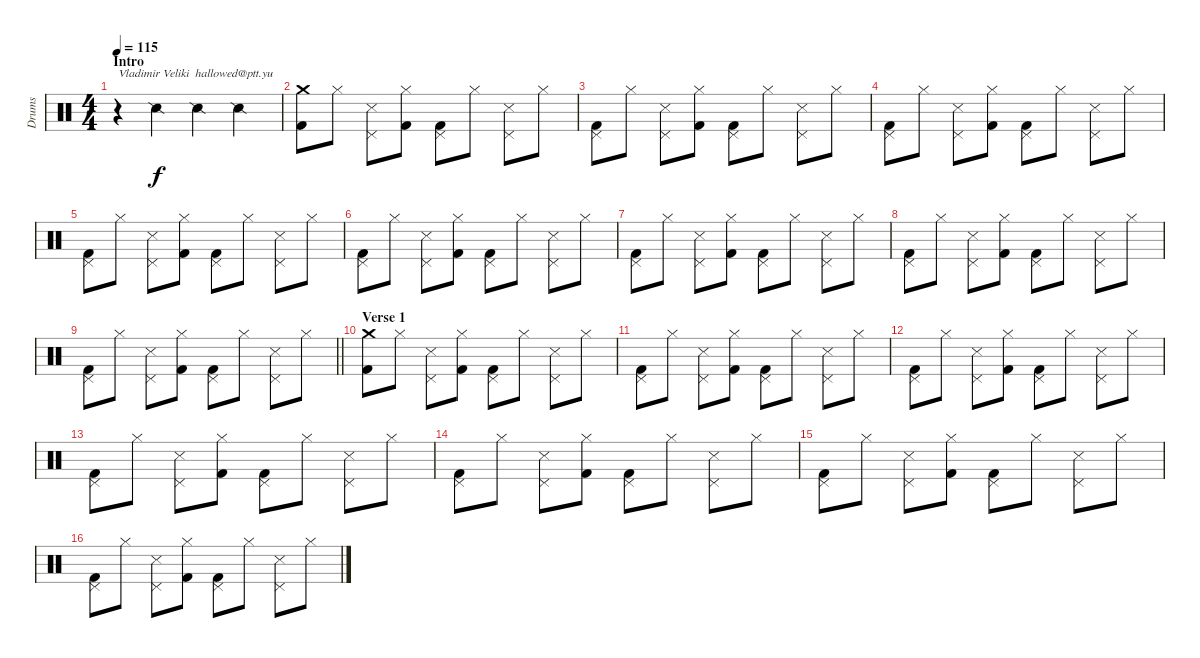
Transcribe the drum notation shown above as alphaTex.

\track ("Drums" "Drums") {instrument percussion}
\staff {score}
\articulation defaults
\ts (4 4)
\section ("" "Intro")
\tempo 115
\clef neutral
\ks c
r.4{txt "Vladimir Veliki  hallowed@ptt.yu" dy f} "Snare (side stick) 2".4 "Snare (side stick) 2".4 "Snare (side stick) 2".4 |
("Crash medium (hit)" "Kick (hit) 2").8 "Hi-Hat (closed)".8 ("Pedal Hi-Hat (hit)" "Snare (side stick) 3").8 ("Hi-Hat (closed)" "Kick (hit) 2").8 ("Pedal Hi-Hat (hit)" "Kick (hit) 2").8 "Hi-Hat (closed)".8 ("Pedal Hi-Hat (hit)" "Snare (side stick) 3").8 "Hi-Hat (closed)".8 |
("Pedal Hi-Hat (hit)" "Kick (hit) 2").8 "Hi-Hat (closed)".8 ("Pedal Hi-Hat (hit)" "Snare (side stick) 3").8 ("Hi-Hat (closed)" "Kick (hit) 2").8 ("Pedal Hi-Hat (hit)" "Kick (hit) 2").8 "Hi-Hat (closed)".8 ("Pedal Hi-Hat (hit)" "Snare (side stick) 3").8 "Hi-Hat (closed)".8 |
("Pedal Hi-Hat (hit)" "Kick (hit) 2").8 "Hi-Hat (closed)".8 ("Pedal Hi-Hat (hit)" "Snare (side stick) 3").8 ("Hi-Hat (closed)" "Kick (hit) 2").8 ("Pedal Hi-Hat (hit)" "Kick (hit) 2").8 "Hi-Hat (closed)".8 ("Pedal Hi-Hat (hit)" "Snare (side stick) 3").8 "Hi-Hat (closed)".8 |
("Pedal Hi-Hat (hit)" "Kick (hit) 2").8 "Hi-Hat (closed)".8 ("Pedal Hi-Hat (hit)" "Snare (side stick) 3").8 ("Hi-Hat (closed)" "Kick (hit) 2").8 ("Pedal Hi-Hat (hit)" "Kick (hit) 2").8 "Hi-Hat (closed)".8 ("Pedal Hi-Hat (hit)" "Snare (side stick) 3").8 "Hi-Hat (closed)".8 |
("Pedal Hi-Hat (hit)" "Kick (hit) 2").8 "Hi-Hat (closed)".8 ("Pedal Hi-Hat (hit)" "Snare (side stick) 3").8 ("Hi-Hat (closed)" "Kick (hit) 2").8 ("Pedal Hi-Hat (hit)" "Kick (hit) 2").8 "Hi-Hat (closed)".8 ("Pedal Hi-Hat (hit)" "Snare (side stick) 3").8 "Hi-Hat (closed)".8 |
("Pedal Hi-Hat (hit)" "Kick (hit) 2").8 "Hi-Hat (closed)".8 ("Pedal Hi-Hat (hit)" "Snare (side stick) 3").8 ("Hi-Hat (closed)" "Kick (hit) 2").8 ("Pedal Hi-Hat (hit)" "Kick (hit) 2").8 "Hi-Hat (closed)".8 ("Pedal Hi-Hat (hit)" "Snare (side stick) 3").8 "Hi-Hat (closed)".8 |
("Pedal Hi-Hat (hit)" "Kick (hit) 2").8 "Hi-Hat (closed)".8 ("Pedal Hi-Hat (hit)" "Snare (side stick) 3").8 ("Hi-Hat (closed)" "Kick (hit) 2").8 ("Pedal Hi-Hat (hit)" "Kick (hit) 2").8 "Hi-Hat (closed)".8 ("Pedal Hi-Hat (hit)" "Snare (side stick) 3").8 "Hi-Hat (closed)".8 |
\barLineRight lightlight
("Pedal Hi-Hat (hit)" "Kick (hit) 2").8 "Hi-Hat (closed)".8 ("Pedal Hi-Hat (hit)" "Snare (side stick) 3").8 ("Hi-Hat (closed)" "Kick (hit) 2").8 ("Pedal Hi-Hat (hit)" "Kick (hit) 2").8 "Hi-Hat (closed)".8 ("Pedal Hi-Hat (hit)" "Snare (side stick) 3").8 "Hi-Hat (closed)".8 |
\section ("" "Verse 1")
("Crash medium (hit)" "Kick (hit) 2").8 "Hi-Hat (closed)".8 ("Pedal Hi-Hat (hit)" "Snare (side stick) 3").8 ("Hi-Hat (closed)" "Kick (hit) 2").8 ("Pedal Hi-Hat (hit)" "Kick (hit) 2").8 "Hi-Hat (closed)".8 ("Pedal Hi-Hat (hit)" "Snare (side stick) 3").8 "Hi-Hat (closed)".8 |
("Pedal Hi-Hat (hit)" "Kick (hit) 2").8 "Hi-Hat (closed)".8 ("Pedal Hi-Hat (hit)" "Snare (side stick) 3").8 ("Hi-Hat (closed)" "Kick (hit) 2").8 ("Pedal Hi-Hat (hit)" "Kick (hit) 2").8 "Hi-Hat (closed)".8 ("Pedal Hi-Hat (hit)" "Snare (side stick) 3").8 "Hi-Hat (closed)".8 |
("Pedal Hi-Hat (hit)" "Kick (hit) 2").8 "Hi-Hat (closed)".8 ("Pedal Hi-Hat (hit)" "Snare (side stick) 3").8 ("Hi-Hat (closed)" "Kick (hit) 2").8 ("Pedal Hi-Hat (hit)" "Kick (hit) 2").8 "Hi-Hat (closed)".8 ("Pedal Hi-Hat (hit)" "Snare (side stick) 3").8 "Hi-Hat (closed)".8 |
("Pedal Hi-Hat (hit)" "Kick (hit) 2").8 "Hi-Hat (closed)".8 ("Pedal Hi-Hat (hit)" "Snare (side stick) 3").8 ("Hi-Hat (closed)" "Kick (hit) 2").8 ("Pedal Hi-Hat (hit)" "Kick (hit) 2").8 "Hi-Hat (closed)".8 ("Pedal Hi-Hat (hit)" "Snare (side stick) 3").8 "Hi-Hat (closed)".8 |
("Pedal Hi-Hat (hit)" "Kick (hit) 2").8 "Hi-Hat (closed)".8 ("Pedal Hi-Hat (hit)" "Snare (side stick) 3").8 ("Hi-Hat (closed)" "Kick (hit) 2").8 ("Pedal Hi-Hat (hit)" "Kick (hit) 2").8 "Hi-Hat (closed)".8 ("Pedal Hi-Hat (hit)" "Snare (side stick) 3").8 "Hi-Hat (closed)".8 |
("Pedal Hi-Hat (hit)" "Kick (hit) 2").8 "Hi-Hat (closed)".8 ("Pedal Hi-Hat (hit)" "Snare (side stick) 3").8 ("Hi-Hat (closed)" "Kick (hit) 2").8 ("Pedal Hi-Hat (hit)" "Kick (hit) 2").8 "Hi-Hat (closed)".8 ("Pedal Hi-Hat (hit)" "Snare (side stick) 3").8 "Hi-Hat (closed)".8 |
("Pedal Hi-Hat (hit)" "Kick (hit) 2").8 "Hi-Hat (closed)".8 ("Pedal Hi-Hat (hit)" "Snare (side stick) 3").8 ("Hi-Hat (closed)" "Kick (hit) 2").8 ("Pedal Hi-Hat (hit)" "Kick (hit) 2").8 "Hi-Hat (closed)".8 ("Pedal Hi-Hat (hit)" "Snare (side stick) 3").8 "Hi-Hat (closed)".8
